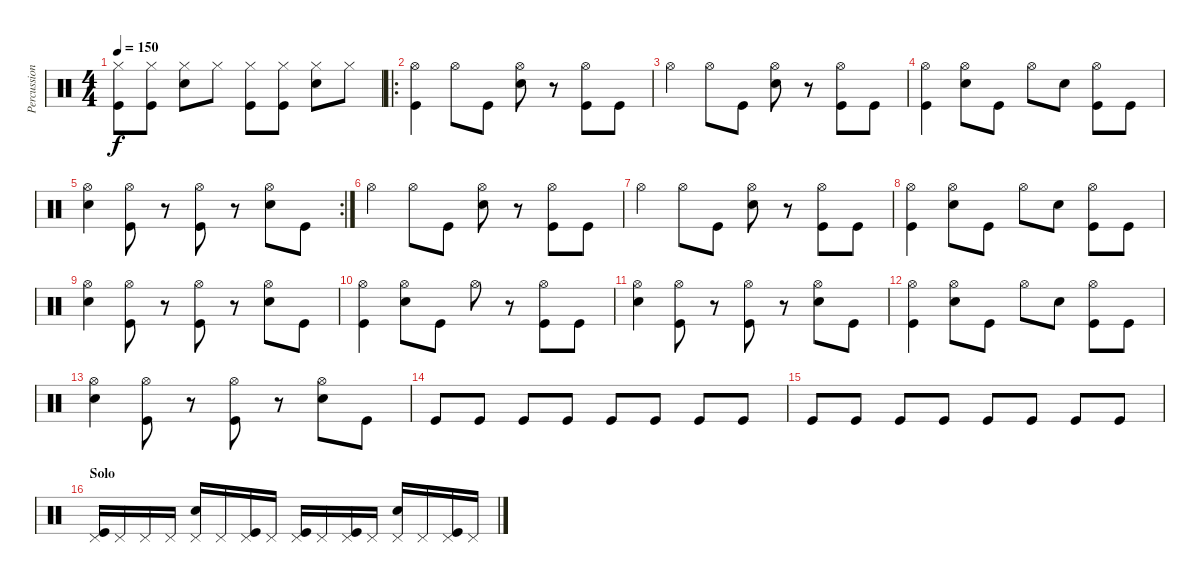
\track ("Percussion" "Percussion") {instrument percussion}
\staff {score}
\articulation defaults
\ts (4 4)
\tempo 150
\clef neutral
\ks c
("Hi-Hat (closed)" "Kick (hit)").8{dy f} ("Hi-Hat (closed)" "Kick (hit)").8 ("Hi-Hat (closed)" "Electric Snare (hit)").8 "Hi-Hat (closed)".8 ("Hi-Hat (closed)" "Kick (hit)").8 ("Hi-Hat (closed)" "Kick (hit)").8 ("Hi-Hat (closed)" "Electric Snare (hit)").8 "Hi-Hat (closed)".8 |
\ro
("Hi-Hat (open)" "Kick (hit)").4 "Hi-Hat (open)".8 "Kick (hit)".8 ("Hi-Hat (open)" "Electric Snare (hit)").8 r.8 ("Hi-Hat (open)" "Kick (hit)").8 "Kick (hit)".8 |
"Hi-Hat (open)".4 "Hi-Hat (open)".8 "Kick (hit)".8 ("Hi-Hat (open)" "Electric Snare (hit)").8 r.8 ("Hi-Hat (open)" "Kick (hit)").8 "Kick (hit)".8 |
("Hi-Hat (open)" "Kick (hit)").4 ("Hi-Hat (open)" "Electric Snare (hit)").8 "Kick (hit)".8 "Hi-Hat (open)".8 "Electric Snare (hit)".8 ("Hi-Hat (open)" "Kick (hit)").8 "Kick (hit)".8 |
\rc 2
("Hi-Hat (open)" "Electric Snare (hit)").4 ("Hi-Hat (open)" "Kick (hit)").8 r.8 ("Hi-Hat (open)" "Kick (hit)").8 r.8 ("Hi-Hat (open)" "Electric Snare (hit)").8 "Kick (hit)".8 |
"Hi-Hat (open)".4 "Hi-Hat (open)".8 "Kick (hit)".8 ("Hi-Hat (open)" "Electric Snare (hit)").8 r.8 ("Hi-Hat (open)" "Kick (hit)").8 "Kick (hit)".8 |
"Hi-Hat (open)".4 "Hi-Hat (open)".8 "Kick (hit)".8 ("Hi-Hat (open)" "Electric Snare (hit)").8 r.8 ("Hi-Hat (open)" "Kick (hit)").8 "Kick (hit)".8 |
("Hi-Hat (open)" "Kick (hit)").4 ("Hi-Hat (open)" "Electric Snare (hit)").8 "Kick (hit)".8 "Hi-Hat (open)".8 "Electric Snare (hit)".8 ("Hi-Hat (open)" "Kick (hit)").8 "Kick (hit)".8 |
("Hi-Hat (open)" "Electric Snare (hit)").4 ("Hi-Hat (open)" "Kick (hit)").8 r.8 ("Hi-Hat (open)" "Kick (hit)").8 r.8 ("Hi-Hat (open)" "Electric Snare (hit)").8 "Kick (hit)".8 |
("Hi-Hat (open)" "Kick (hit)").4 ("Hi-Hat (open)" "Electric Snare (hit)").8 "Kick (hit)".8 "Hi-Hat (open)".8 r.8 ("Hi-Hat (open)" "Kick (hit)").8 "Kick (hit)".8 |
("Hi-Hat (open)" "Electric Snare (hit)").4 ("Hi-Hat (open)" "Kick (hit)").8 r.8 ("Hi-Hat (open)" "Kick (hit)").8 r.8 ("Hi-Hat (open)" "Electric Snare (hit)").8 "Kick (hit)".8 |
("Hi-Hat (open)" "Kick (hit)").4 ("Hi-Hat (open)" "Electric Snare (hit)").8 "Kick (hit)".8 "Hi-Hat (open)".8 "Electric Snare (hit)".8 ("Hi-Hat (open)" "Kick (hit)").8 "Kick (hit)".8 |
("Hi-Hat (open)" "Electric Snare (hit)").4 ("Hi-Hat (open)" "Kick (hit)").8 r.8 ("Hi-Hat (open)" "Kick (hit)").8 r.8 ("Hi-Hat (open)" "Electric Snare (hit)").8 "Kick (hit)".8 |
"Kick (hit)".8 "Kick (hit)".8 "Kick (hit)".8 "Kick (hit)".8 "Kick (hit)".8 "Kick (hit)".8 "Kick (hit)".8 "Kick (hit)".8 |
"Kick (hit)".8 "Kick (hit)".8 "Kick (hit)".8 "Kick (hit)".8 "Kick (hit)".8 "Kick (hit)".8 "Kick (hit)".8 "Kick (hit)".8 |
\section ("" "Solo")
("Pedal Hi-Hat (hit)" "Kick (hit)").16 "Pedal Hi-Hat (hit)".16 "Pedal Hi-Hat (hit)".16 "Pedal Hi-Hat (hit)".16 ("Pedal Hi-Hat (hit)" "Electric Snare (hit)").16 "Pedal Hi-Hat (hit)".16 ("Pedal Hi-Hat (hit)" "Kick (hit)").16 "Pedal Hi-Hat (hit)".16 ("Pedal Hi-Hat (hit)" "Kick (hit)").16 "Pedal Hi-Hat (hit)".16 ("Pedal Hi-Hat (hit)" "Kick (hit)").16 "Pedal Hi-Hat (hit)".16 ("Pedal Hi-Hat (hit)" "Electric Snare (hit)").16 "Pedal Hi-Hat (hit)".16 ("Pedal Hi-Hat (hit)" "Kick (hit)").16 "Pedal Hi-Hat (hit)".16
